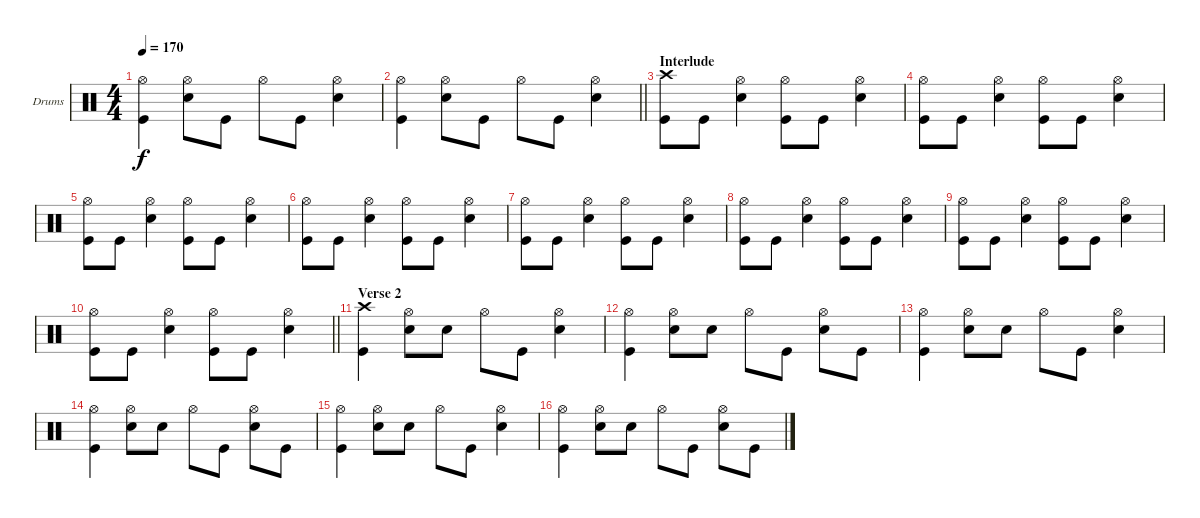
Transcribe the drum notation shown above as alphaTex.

\bracketExtendMode groupsimilarinstruments
\firstSystemTrackNameOrientation horizontal
\otherSystemsTrackNameOrientation horizontal
\track ("Drumkit" "Drums") {instrument percussion}
\staff {score}
\articulation defaults
\ts (4 4)
\tempo 170
\clef neutral
\ks c
("Hi-Hat (open)" "Kick (hit)").4{dy f} ("Hi-Hat (open)" "Snare (hit) 2").8 "Kick (hit)".8 "Hi-Hat (open)".8 "Kick (hit)".8 ("Hi-Hat (open)" "Snare (hit) 2").4 |
\barLineRight lightlight
("Hi-Hat (open)" "Kick (hit)").4 ("Hi-Hat (open)" "Snare (hit) 2").8 "Kick (hit)".8 "Hi-Hat (open)".8 "Kick (hit)".8 ("Hi-Hat (open)" "Snare (hit) 2").4 |
\section ("" "Interlude")
("Crash high (hit)" "Kick (hit)").8 "Kick (hit)".8 ("Hi-Hat (open)" "Snare (hit) 2").4 ("Hi-Hat (open)" "Kick (hit)").8 "Kick (hit)".8 ("Hi-Hat (open)" "Snare (hit) 2").4 |
("Hi-Hat (open)" "Kick (hit)").8 "Kick (hit)".8 ("Hi-Hat (open)" "Snare (hit) 2").4 ("Hi-Hat (open)" "Kick (hit)").8 "Kick (hit)".8 ("Hi-Hat (open)" "Snare (hit) 2").4 |
("Hi-Hat (open)" "Kick (hit)").8 "Kick (hit)".8 ("Hi-Hat (open)" "Snare (hit) 2").4 ("Hi-Hat (open)" "Kick (hit)").8 "Kick (hit)".8 ("Hi-Hat (open)" "Snare (hit) 2").4 |
("Hi-Hat (open)" "Kick (hit)").8 "Kick (hit)".8 ("Hi-Hat (open)" "Snare (hit) 2").4 ("Hi-Hat (open)" "Kick (hit)").8 "Kick (hit)".8 ("Hi-Hat (open)" "Snare (hit) 2").4 |
("Hi-Hat (open)" "Kick (hit)").8 "Kick (hit)".8 ("Hi-Hat (open)" "Snare (hit) 2").4 ("Hi-Hat (open)" "Kick (hit)").8 "Kick (hit)".8 ("Hi-Hat (open)" "Snare (hit) 2").4 |
("Hi-Hat (open)" "Kick (hit)").8 "Kick (hit)".8 ("Hi-Hat (open)" "Snare (hit) 2").4 ("Hi-Hat (open)" "Kick (hit)").8 "Kick (hit)".8 ("Hi-Hat (open)" "Snare (hit) 2").4 |
("Hi-Hat (open)" "Kick (hit)").8 "Kick (hit)".8 ("Hi-Hat (open)" "Snare (hit) 2").4 ("Hi-Hat (open)" "Kick (hit)").8 "Kick (hit)".8 ("Hi-Hat (open)" "Snare (hit) 2").4 |
\barLineRight lightlight
("Hi-Hat (open)" "Kick (hit)").8 "Kick (hit)".8 ("Hi-Hat (open)" "Snare (hit) 2").4 ("Hi-Hat (open)" "Kick (hit)").8 "Kick (hit)".8 ("Hi-Hat (open)" "Snare (hit) 2").4 |
\section ("" "Verse 2")
("Crash high (hit)" "Kick (hit)").4 ("Hi-Hat (open)" "Snare (hit) 2").8 "Snare (hit) 2".8 "Hi-Hat (open)".8 "Kick (hit)".8 ("Hi-Hat (open)" "Snare (hit) 2").4 |
("Hi-Hat (open)" "Kick (hit)").4 ("Hi-Hat (open)" "Snare (hit) 2").8 "Snare (hit) 2".8 "Hi-Hat (open)".8 "Kick (hit)".8 ("Hi-Hat (open)" "Snare (hit) 2").8 "Kick (hit)".8 |
("Hi-Hat (open)" "Kick (hit)").4 ("Hi-Hat (open)" "Snare (hit) 2").8 "Snare (hit) 2".8 "Hi-Hat (open)".8 "Kick (hit)".8 ("Hi-Hat (open)" "Snare (hit) 2").4 |
("Hi-Hat (open)" "Kick (hit)").4 ("Hi-Hat (open)" "Snare (hit) 2").8 "Snare (hit) 2".8 "Hi-Hat (open)".8 "Kick (hit)".8 ("Hi-Hat (open)" "Snare (hit) 2").8 "Kick (hit)".8 |
("Hi-Hat (open)" "Kick (hit)").4 ("Hi-Hat (open)" "Snare (hit) 2").8 "Snare (hit) 2".8 "Hi-Hat (open)".8 "Kick (hit)".8 ("Hi-Hat (open)" "Snare (hit) 2").4 |
("Hi-Hat (open)" "Kick (hit)").4 ("Hi-Hat (open)" "Snare (hit) 2").8 "Snare (hit) 2".8 "Hi-Hat (open)".8 "Kick (hit)".8 ("Hi-Hat (open)" "Snare (hit) 2").8 "Kick (hit)".8
